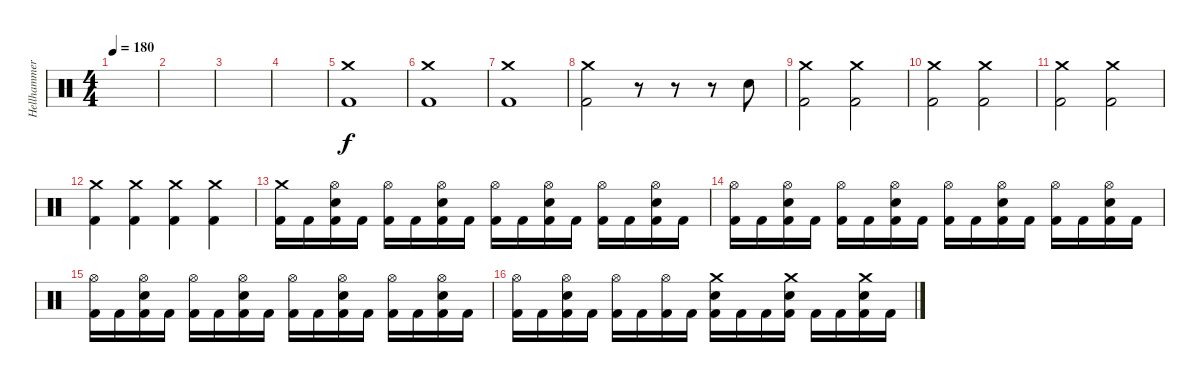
\track ("Hellhammer (Drums)" "Hellhammer") {instrument percussion}
\staff {score}
\articulation defaults
\ts (4 4)
\tempo 180
\clef neutral
\ks c
|
|
|
|
("Crash medium (hit)" "Kick (hit) 2").1 |
("Crash medium (hit)" "Kick (hit) 2").1 |
("Crash medium (hit)" "Kick (hit) 2").1 |
("Crash medium (hit)" "Kick (hit) 2").2 r.8 r.8 r.8 "Electric Snare (hit)".8 |
("Crash medium (hit)" "Kick (hit) 2").2 ("Crash medium (hit)" "Kick (hit) 2").2 |
("Crash medium (hit)" "Kick (hit) 2").2 ("Crash medium (hit)" "Kick (hit) 2").2 |
("Crash medium (hit)" "Kick (hit) 2").2 ("Crash medium (hit)" "Kick (hit) 2").2 |
("Crash medium (hit)" "Kick (hit) 2").4 ("Crash medium (hit)" "Kick (hit) 2").4 ("Crash medium (hit)" "Kick (hit) 2").4 ("Crash medium (hit)" "Kick (hit) 2").4 |
("Crash medium (hit)" "Kick (hit) 2").16 "Kick (hit) 2".16 ("Hi-Hat (open)" "Electric Snare (hit)" "Kick (hit) 2").16 "Kick (hit) 2".16 ("Hi-Hat (open)" "Kick (hit) 2").16 "Kick (hit) 2".16 ("Hi-Hat (open)" "Electric Snare (hit)" "Kick (hit) 2").16 "Kick (hit) 2".16 ("Hi-Hat (open)" "Kick (hit) 2").16 "Kick (hit) 2".16 ("Hi-Hat (open)" "Electric Snare (hit)" "Kick (hit) 2").16 "Kick (hit) 2".16 ("Hi-Hat (open)" "Kick (hit) 2").16 "Kick (hit) 2".16 ("Hi-Hat (open)" "Electric Snare (hit)" "Kick (hit) 2").16 "Kick (hit) 2".16 |
("Hi-Hat (open)" "Kick (hit) 2").16 "Kick (hit) 2".16 ("Hi-Hat (open)" "Electric Snare (hit)" "Kick (hit) 2").16 "Kick (hit) 2".16 ("Hi-Hat (open)" "Kick (hit) 2").16 "Kick (hit) 2".16 ("Hi-Hat (open)" "Electric Snare (hit)" "Kick (hit) 2").16 "Kick (hit) 2".16 ("Hi-Hat (open)" "Kick (hit) 2").16 "Kick (hit) 2".16 ("Hi-Hat (open)" "Electric Snare (hit)" "Kick (hit) 2").16 "Kick (hit) 2".16 ("Hi-Hat (open)" "Kick (hit) 2").16 "Kick (hit) 2".16 ("Hi-Hat (open)" "Electric Snare (hit)" "Kick (hit) 2").16 "Kick (hit) 2".16 |
("Hi-Hat (open)" "Kick (hit) 2").16 "Kick (hit) 2".16 ("Hi-Hat (open)" "Electric Snare (hit)" "Kick (hit) 2").16 "Kick (hit) 2".16 ("Hi-Hat (open)" "Kick (hit) 2").16 "Kick (hit) 2".16 ("Hi-Hat (open)" "Electric Snare (hit)" "Kick (hit) 2").16 "Kick (hit) 2".16 ("Hi-Hat (open)" "Kick (hit) 2").16 "Kick (hit) 2".16 ("Hi-Hat (open)" "Electric Snare (hit)" "Kick (hit) 2").16 "Kick (hit) 2".16 ("Hi-Hat (open)" "Kick (hit) 2").16 "Kick (hit) 2".16 ("Hi-Hat (open)" "Electric Snare (hit)" "Kick (hit) 2").16 "Kick (hit) 2".16 |
("Hi-Hat (open)" "Kick (hit) 2").16 "Kick (hit) 2".16 ("Hi-Hat (open)" "Electric Snare (hit)" "Kick (hit) 2").16 "Kick (hit) 2".16 ("Hi-Hat (open)" "Kick (hit) 2").16 "Kick (hit) 2".16 ("Hi-Hat (open)" "Kick (hit) 2").16 "Kick (hit) 2".16 ("Crash medium (hit)" "Electric Snare (hit)" "Kick (hit) 2").16 "Kick (hit) 2".16 "Kick (hit) 2".16 ("Crash medium (hit)" "Electric Snare (hit)" "Kick (hit) 2").16 "Kick (hit) 2".16 "Kick (hit) 2".16 ("Crash medium (hit)" "Electric Snare (hit)" "Kick (hit) 2").16 "Kick (hit) 2".16
